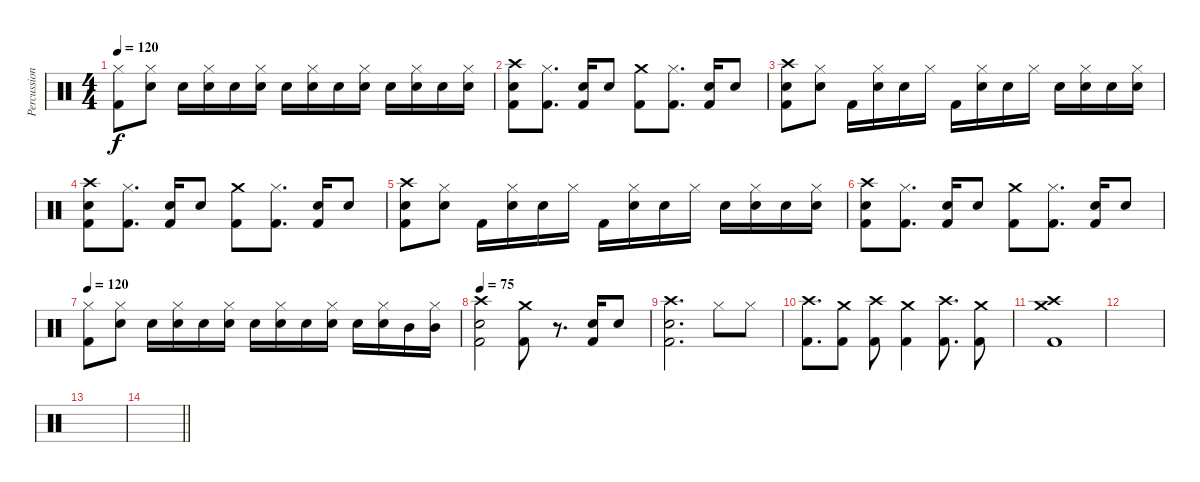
\track ("Percussion" "Percussion") {instrument percussion}
\staff {score}
\articulation defaults
\ts (4 4)
\tempo 120
\clef neutral
\ks c
("Hi-Hat (closed)" "Kick (hit) 2").8{dy f} ("Hi-Hat (closed)" "Electric Snare (hit)").8 "Electric Snare (hit)".16 ("Hi-Hat (closed)" "Electric Snare (hit)").16 "Electric Snare (hit)".16 ("Hi-Hat (closed)" "Electric Snare (hit)").16 "Electric Snare (hit)".16 ("Hi-Hat (closed)" "Electric Snare (hit)").16 "Electric Snare (hit)".16 ("Hi-Hat (closed)" "Electric Snare (hit)").16 "Electric Snare (hit)".16 ("Hi-Hat (closed)" "Electric Snare (hit)").16 "Electric Snare (hit)".16 ("Hi-Hat (closed)" "Electric Snare (hit)").16 |
("Crash high (hit)" "Electric Snare (hit)" "Kick (hit) 2").8 ("Hi-Hat (closed)" "Kick (hit) 2").8{d} ("Electric Snare (hit)" "Kick (hit) 2").16 "Electric Snare (hit)".8 ("Crash medium (hit)" "Kick (hit) 2").8 ("Hi-Hat (closed)" "Kick (hit) 2").8{d} ("Electric Snare (hit)" "Kick (hit) 2").16 "Electric Snare (hit)".8 |
("Crash high (hit)" "Electric Snare (hit)" "Kick (hit) 2").8 ("Hi-Hat (closed)" "Electric Snare (hit)").8 "Kick (hit) 2".16 ("Hi-Hat (closed)" "Electric Snare (hit)").16 "Electric Snare (hit)".16 "Hi-Hat (closed)".16 "Kick (hit) 2".16 ("Hi-Hat (closed)" "Electric Snare (hit)").16 "Electric Snare (hit)".16 "Hi-Hat (closed)".16 "Electric Snare (hit)".16 ("Hi-Hat (closed)" "Electric Snare (hit)").16 "Electric Snare (hit)".16 ("Hi-Hat (closed)" "Electric Snare (hit)").16 |
("Crash high (hit)" "Electric Snare (hit)" "Kick (hit) 2").8 ("Hi-Hat (closed)" "Kick (hit) 2").8{d} ("Electric Snare (hit)" "Kick (hit) 2").16 "Electric Snare (hit)".8 ("Crash medium (hit)" "Kick (hit) 2").8 ("Hi-Hat (closed)" "Kick (hit) 2").8{d} ("Electric Snare (hit)" "Kick (hit) 2").16 "Electric Snare (hit)".8 |
("Crash high (hit)" "Electric Snare (hit)" "Kick (hit) 2").8 ("Hi-Hat (closed)" "Electric Snare (hit)").8 "Kick (hit) 2".16 ("Hi-Hat (closed)" "Electric Snare (hit)").16 "Electric Snare (hit)".16 "Hi-Hat (closed)".16 "Kick (hit) 2".16 ("Hi-Hat (closed)" "Electric Snare (hit)").16 "Electric Snare (hit)".16 "Hi-Hat (closed)".16 "Electric Snare (hit)".16 ("Hi-Hat (closed)" "Electric Snare (hit)").16 "Electric Snare (hit)".16 ("Hi-Hat (closed)" "Electric Snare (hit)").16 |
("Crash high (hit)" "Electric Snare (hit)" "Kick (hit) 2").8 ("Hi-Hat (closed)" "Kick (hit) 2").8{d} ("Electric Snare (hit)" "Kick (hit) 2").16 "Electric Snare (hit)".8 ("Crash medium (hit)" "Kick (hit) 2").8 ("Hi-Hat (closed)" "Kick (hit) 2").8{d} ("Electric Snare (hit)" "Kick (hit) 2").16 "Electric Snare (hit)".8 |
\tempo 120
("Hi-Hat (closed)" "Kick (hit) 2").8 ("Hi-Hat (closed)" "Electric Snare (hit)").8 "Electric Snare (hit)".16 ("Hi-Hat (closed)" "Electric Snare (hit)").16 "Electric Snare (hit)".16 ("Hi-Hat (closed)" "Electric Snare (hit)").16 "Electric Snare (hit)".16 ("Hi-Hat (closed)" "Electric Snare (hit)").16 "Electric Snare (hit)".16 ("Hi-Hat (closed)" "Electric Snare (hit)").16 "Electric Snare (hit)".16 ("Hi-Hat (closed)" "Electric Snare (hit)").16 "Mid Tom (hit)".16 ("Hi-Hat (closed)" "Mid Tom (hit)").16 |
\tempo 75
("Crash high (hit)" "Electric Snare (hit)" "Kick (hit) 2").2 ("Crash medium (hit)" "Kick (hit) 2").8 r.8{d} ("Electric Snare (hit)" "Kick (hit) 2").16 "Electric Snare (hit)".8 |
("Crash high (hit)" "Electric Snare (hit)" "Kick (hit) 2").2{d} "Hi-Hat (closed)".8 "Hi-Hat (closed)".8 |
("Crash high (hit)" "Kick (hit) 2").8{d} ("Crash medium (hit)" "Kick (hit) 2").8 ("Crash high (hit)" "Kick (hit) 2").8 ("Crash medium (hit)" "Kick (hit) 2").4 ("Crash high (hit)" "Kick (hit) 2").8{d} ("Crash medium (hit)" "Kick (hit) 2").8 |
("Crash high (hit)" "Crash medium (hit)" "Kick (hit) 2").1 |
|
|
\barLineRight lightlight
